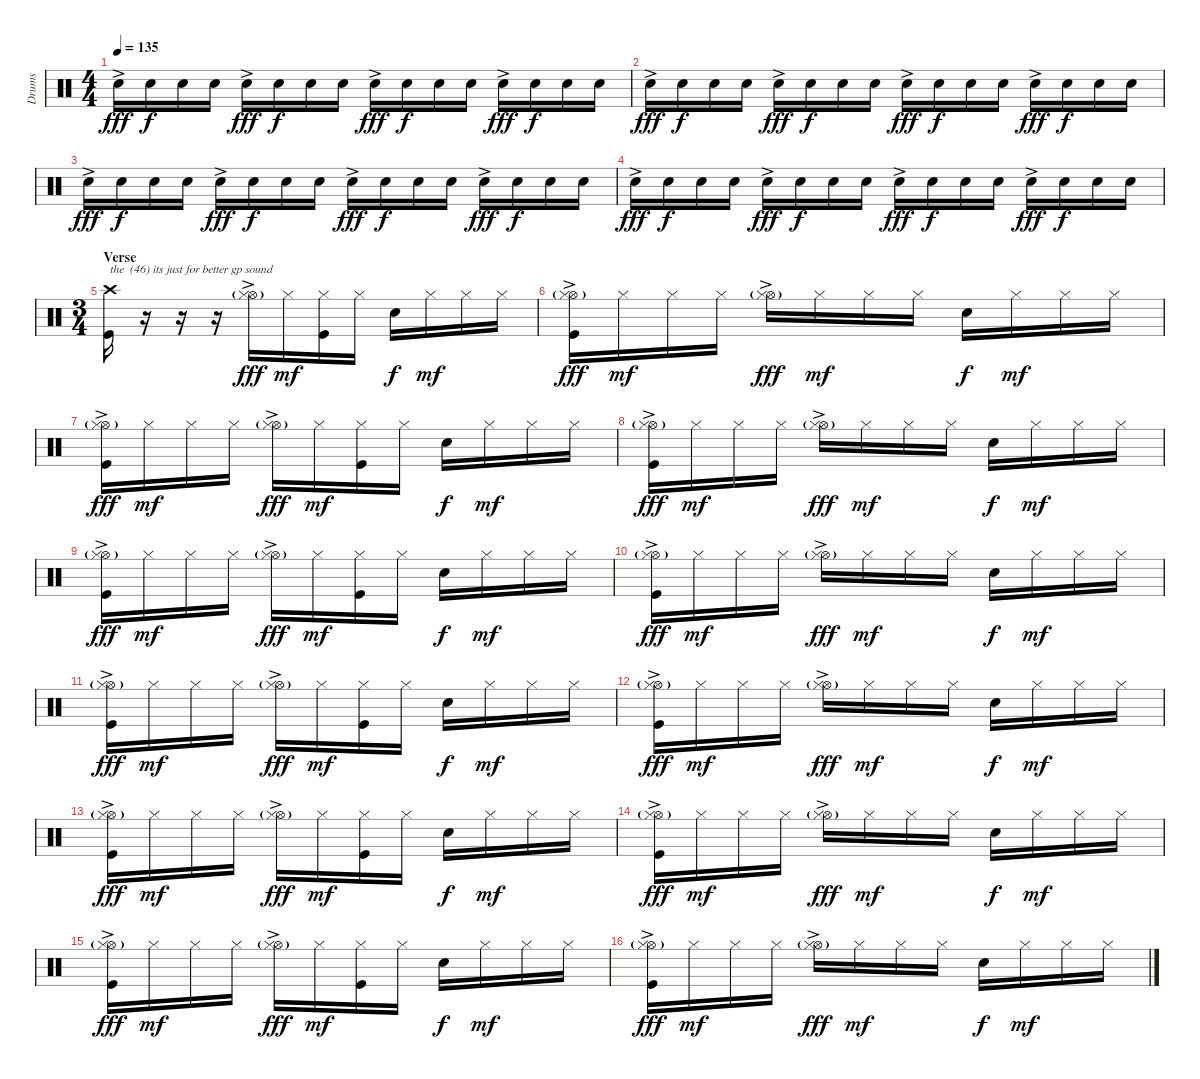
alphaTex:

\track ("Drums" "Drums") {instrument percussion}
\staff {score}
\articulation defaults
\ts (4 4)
\tempo 135
\clef neutral
\ks c "Snare (hit) 2"{ac}.16{dy fff volume 3} "Snare (hit) 2".16{dy f volume 11} "Snare (hit) 2".16 "Snare (hit) 2".16 "Snare (hit) 2"{ac}.16{dy fff} "Snare (hit) 2".16{dy f} "Snare (hit) 2".16 "Snare (hit) 2".16 "Snare (hit) 2"{ac}.16{dy fff} "Snare (hit) 2".16{dy f} "Snare (hit) 2".16 "Snare (hit) 2".16 "Snare (hit) 2"{ac}.16{dy fff} "Snare (hit) 2".16{dy f} "Snare (hit) 2".16 "Snare (hit) 2".16
|
"Snare (hit) 2"{ac}.16{dy fff} "Snare (hit) 2".16{dy f} "Snare (hit) 2".16 "Snare (hit) 2".16 "Snare (hit) 2"{ac}.16{dy fff} "Snare (hit) 2".16{dy f} "Snare (hit) 2".16 "Snare (hit) 2".16 "Snare (hit) 2"{ac}.16{dy fff} "Snare (hit) 2".16{dy f} "Snare (hit) 2".16 "Snare (hit) 2".16 "Snare (hit) 2"{ac}.16{dy fff} "Snare (hit) 2".16{dy f} "Snare (hit) 2".16 "Snare (hit) 2".16 |
"Snare (hit) 2"{ac}.16{dy fff} "Snare (hit) 2".16{dy f} "Snare (hit) 2".16 "Snare (hit) 2".16 "Snare (hit) 2"{ac}.16{dy fff} "Snare (hit) 2".16{dy f} "Snare (hit) 2".16 "Snare (hit) 2".16 "Snare (hit) 2"{ac}.16{dy fff} "Snare (hit) 2".16{dy f} "Snare (hit) 2".16 "Snare (hit) 2".16 "Snare (hit) 2"{ac}.16{dy fff} "Snare (hit) 2".16{dy f} "Snare (hit) 2".16 "Snare (hit) 2".16 |
"Snare (hit) 2"{ac}.16{dy fff} "Snare (hit) 2".16{dy f} "Snare (hit) 2".16 "Snare (hit) 2".16 "Snare (hit) 2"{ac}.16{dy fff} "Snare (hit) 2".16{dy f} "Snare (hit) 2".16 "Snare (hit) 2".16 "Snare (hit) 2"{ac}.16{dy fff} "Snare (hit) 2".16{dy f} "Snare (hit) 2".16 "Snare (hit) 2".16 "Snare (hit) 2"{ac}.16{dy fff} "Snare (hit) 2".16{dy f} "Snare (hit) 2".16 "Snare (hit) 2".16 |
\ts (3 4)
\section ("" "Verse")
("Crash high (hit)" "Kick (hit)").16{txt "the  (46) its just for better gp sound" volume 14} r.16 r.16 r.16 ("Hi-Hat (open)"{g} "Hi-Hat (closed)"{ac}).16{dy fff} "Hi-Hat (closed)".16{dy mf} ("Hi-Hat (closed)" "Kick (hit)").16 "Hi-Hat (closed)".16 "Snare (hit) 2".16{dy f} "Hi-Hat (closed)".16{dy mf} "Hi-Hat (closed)".16 "Hi-Hat (closed)".16 |
("Hi-Hat (open)"{g} "Hi-Hat (closed)"{ac} "Kick (hit)").16{dy fff} "Hi-Hat (closed)".16{dy mf} "Hi-Hat (closed)".16 "Hi-Hat (closed)".16 ("Hi-Hat (open)"{g} "Hi-Hat (closed)"{ac}).16{dy fff} "Hi-Hat (closed)".16{dy mf} "Hi-Hat (closed)".16 "Hi-Hat (closed)".16 "Snare (hit) 2".16{dy f} "Hi-Hat (closed)".16{dy mf} "Hi-Hat (closed)".16 "Hi-Hat (closed)".16 |
("Hi-Hat (open)"{g} "Hi-Hat (closed)"{ac} "Kick (hit)").16{dy fff} "Hi-Hat (closed)".16{dy mf} "Hi-Hat (closed)".16 "Hi-Hat (closed)".16 ("Hi-Hat (open)"{g} "Hi-Hat (closed)"{ac}).16{dy fff} "Hi-Hat (closed)".16{dy mf} ("Hi-Hat (closed)" "Kick (hit)").16 "Hi-Hat (closed)".16 "Snare (hit) 2".16{dy f} "Hi-Hat (closed)".16{dy mf} "Hi-Hat (closed)".16 "Hi-Hat (closed)".16 |
("Hi-Hat (open)"{g} "Hi-Hat (closed)"{ac} "Kick (hit)").16{dy fff} "Hi-Hat (closed)".16{dy mf} "Hi-Hat (closed)".16 "Hi-Hat (closed)".16 ("Hi-Hat (open)"{g} "Hi-Hat (closed)"{ac}).16{dy fff} "Hi-Hat (closed)".16{dy mf} "Hi-Hat (closed)".16 "Hi-Hat (closed)".16 "Snare (hit) 2".16{dy f} "Hi-Hat (closed)".16{dy mf} "Hi-Hat (closed)".16 "Hi-Hat (closed)".16 |
("Hi-Hat (open)"{g} "Hi-Hat (closed)"{ac} "Kick (hit)").16{dy fff} "Hi-Hat (closed)".16{dy mf} "Hi-Hat (closed)".16 "Hi-Hat (closed)".16 ("Hi-Hat (open)"{g} "Hi-Hat (closed)"{ac}).16{dy fff} "Hi-Hat (closed)".16{dy mf} ("Hi-Hat (closed)" "Kick (hit)").16 "Hi-Hat (closed)".16 "Snare (hit) 2".16{dy f} "Hi-Hat (closed)".16{dy mf} "Hi-Hat (closed)".16 "Hi-Hat (closed)".16 |
("Hi-Hat (open)"{g} "Hi-Hat (closed)"{ac} "Kick (hit)").16{dy fff} "Hi-Hat (closed)".16{dy mf} "Hi-Hat (closed)".16 "Hi-Hat (closed)".16 ("Hi-Hat (open)"{g} "Hi-Hat (closed)"{ac}).16{dy fff} "Hi-Hat (closed)".16{dy mf} "Hi-Hat (closed)".16 "Hi-Hat (closed)".16 "Snare (hit) 2".16{dy f} "Hi-Hat (closed)".16{dy mf} "Hi-Hat (closed)".16 "Hi-Hat (closed)".16 |
("Hi-Hat (open)"{g} "Hi-Hat (closed)"{ac} "Kick (hit)").16{dy fff} "Hi-Hat (closed)".16{dy mf} "Hi-Hat (closed)".16 "Hi-Hat (closed)".16 ("Hi-Hat (open)"{g} "Hi-Hat (closed)"{ac}).16{dy fff} "Hi-Hat (closed)".16{dy mf} ("Hi-Hat (closed)" "Kick (hit)").16 "Hi-Hat (closed)".16 "Snare (hit) 2".16{dy f} "Hi-Hat (closed)".16{dy mf} "Hi-Hat (closed)".16 "Hi-Hat (closed)".16 |
("Hi-Hat (open)"{g} "Hi-Hat (closed)"{ac} "Kick (hit)").16{dy fff} "Hi-Hat (closed)".16{dy mf} "Hi-Hat (closed)".16 "Hi-Hat (closed)".16 ("Hi-Hat (open)"{g} "Hi-Hat (closed)"{ac}).16{dy fff} "Hi-Hat (closed)".16{dy mf} "Hi-Hat (closed)".16 "Hi-Hat (closed)".16 "Snare (hit) 2".16{dy f} "Hi-Hat (closed)".16{dy mf} "Hi-Hat (closed)".16 "Hi-Hat (closed)".16 |
("Hi-Hat (open)"{g} "Hi-Hat (closed)"{ac} "Kick (hit)").16{dy fff} "Hi-Hat (closed)".16{dy mf} "Hi-Hat (closed)".16 "Hi-Hat (closed)".16 ("Hi-Hat (open)"{g} "Hi-Hat (closed)"{ac}).16{dy fff} "Hi-Hat (closed)".16{dy mf} ("Hi-Hat (closed)" "Kick (hit)").16 "Hi-Hat (closed)".16 "Snare (hit) 2".16{dy f} "Hi-Hat (closed)".16{dy mf} "Hi-Hat (closed)".16 "Hi-Hat (closed)".16 |
("Hi-Hat (open)"{g} "Hi-Hat (closed)"{ac} "Kick (hit)").16{dy fff} "Hi-Hat (closed)".16{dy mf} "Hi-Hat (closed)".16 "Hi-Hat (closed)".16 ("Hi-Hat (open)"{g} "Hi-Hat (closed)"{ac}).16{dy fff} "Hi-Hat (closed)".16{dy mf} "Hi-Hat (closed)".16 "Hi-Hat (closed)".16 "Snare (hit) 2".16{dy f} "Hi-Hat (closed)".16{dy mf} "Hi-Hat (closed)".16 "Hi-Hat (closed)".16 |
("Hi-Hat (open)"{g} "Hi-Hat (closed)"{ac} "Kick (hit)").16{dy fff} "Hi-Hat (closed)".16{dy mf} "Hi-Hat (closed)".16 "Hi-Hat (closed)".16 ("Hi-Hat (open)"{g} "Hi-Hat (closed)"{ac}).16{dy fff} "Hi-Hat (closed)".16{dy mf} ("Hi-Hat (closed)" "Kick (hit)").16 "Hi-Hat (closed)".16 "Snare (hit) 2".16{dy f} "Hi-Hat (closed)".16{dy mf} "Hi-Hat (closed)".16 "Hi-Hat (closed)".16 |
("Hi-Hat (open)"{g} "Hi-Hat (closed)"{ac} "Kick (hit)").16{dy fff} "Hi-Hat (closed)".16{dy mf} "Hi-Hat (closed)".16 "Hi-Hat (closed)".16 ("Hi-Hat (open)"{g} "Hi-Hat (closed)"{ac}).16{dy fff} "Hi-Hat (closed)".16{dy mf} "Hi-Hat (closed)".16 "Hi-Hat (closed)".16 "Snare (hit) 2".16{dy f} "Hi-Hat (closed)".16{dy mf} "Hi-Hat (closed)".16 "Hi-Hat (closed)".16
